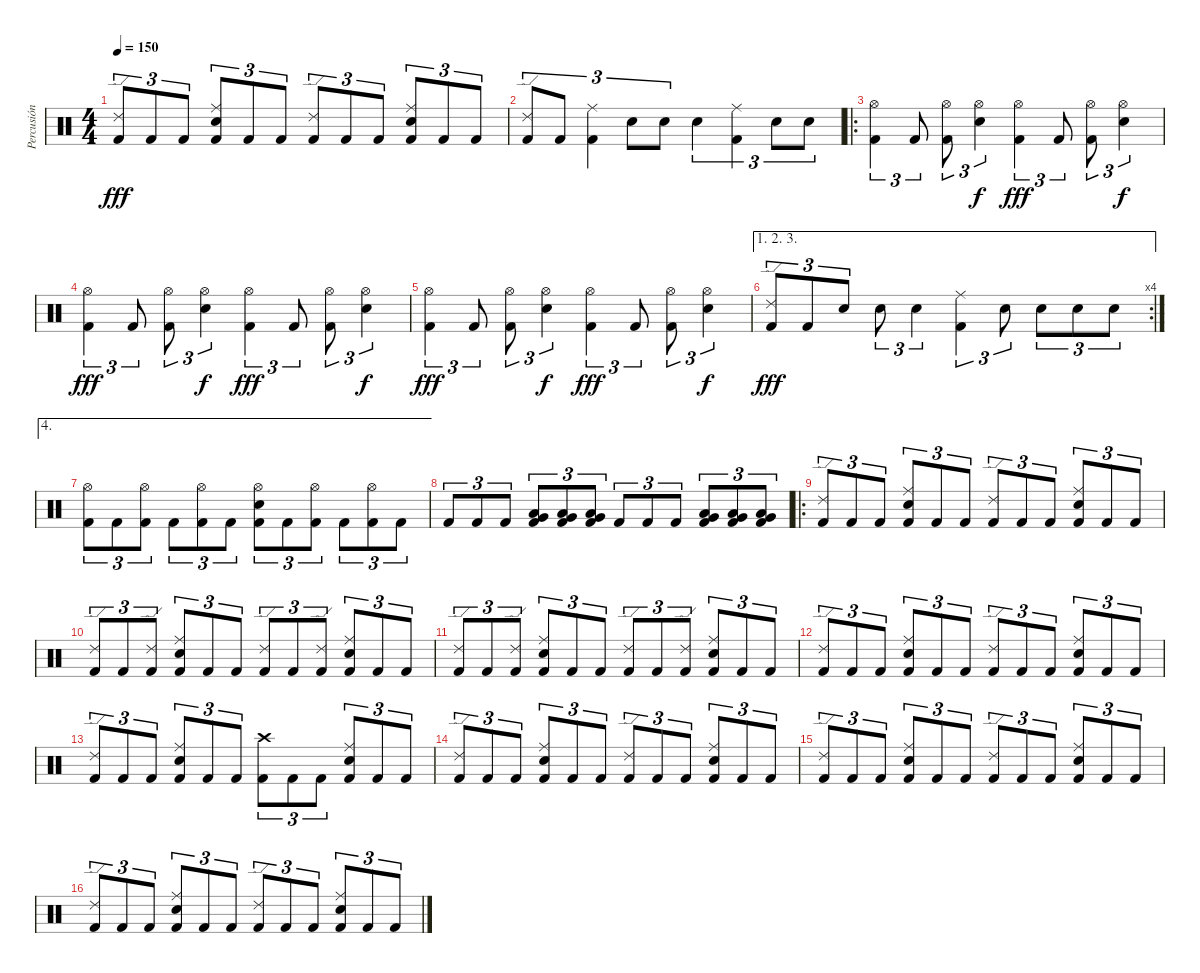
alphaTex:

\track ("Percusión" "Percusión") {instrument percussion}
\staff {score}
\articulation defaults
\ts (4 4)
\tempo 150
\clef neutral
\ks c
("Ride (edge) 2" "Kick (hit) 2").8{tu (3 2) dy fff} "Kick (hit) 2".8{tu (3 2)} "Kick (hit) 2".8{tu (3 2)} ("Ride (middle)" "Snare (hit) 2" "Kick (hit) 2").8{tu (3 2)} "Kick (hit) 2".8{tu (3 2)} "Kick (hit) 2".8{tu (3 2)} ("Ride (edge) 2" "Kick (hit) 2").8{tu (3 2)} "Kick (hit) 2".8{tu (3 2)} "Kick (hit) 2".8{tu (3 2)} ("Ride (middle)" "Snare (hit) 2" "Kick (hit) 2").8{tu (3 2)} "Kick (hit) 2".8{tu (3 2)} "Kick (hit) 2".8{tu (3 2)} |
("Ride (edge) 2" "Kick (hit) 2").8{tu (3 2)} "Kick (hit) 2".8{tu (3 2)} ("Ride (middle)" "Kick (hit) 2").4{tu (3 2)} "Electric Snare (hit)".8{tu (3 2)} "Electric Snare (hit)".8{tu (3 2)} "Electric Snare (hit)".4{tu (3 2)} ("Ride (middle)" "Kick (hit) 2").4{tu (3 2)} "Electric Snare (hit)".8{tu (3 2)} "Electric Snare (hit)".8{tu (3 2)} |
\ro
("Hi-Hat (open)" "Kick (hit) 2").4{tu (3 2)} "Kick (hit) 2".8{tu (3 2)} ("Hi-Hat (open)" "Kick (hit) 2").8{tu (3 2)} ("Hi-Hat (open)" "Snare (hit) 2").4{tu (3 2) dy f} ("Hi-Hat (open)" "Kick (hit) 2").4{tu (3 2) dy fff} "Kick (hit) 2".8{tu (3 2)} ("Hi-Hat (open)" "Kick (hit) 2").8{tu (3 2)} ("Hi-Hat (open)" "Snare (hit) 2").4{tu (3 2) dy f} |
("Hi-Hat (open)" "Kick (hit) 2").4{tu (3 2) dy fff} "Kick (hit) 2".8{tu (3 2)} ("Hi-Hat (open)" "Kick (hit) 2").8{tu (3 2)} ("Hi-Hat (open)" "Snare (hit) 2").4{tu (3 2) dy f} ("Hi-Hat (open)" "Kick (hit) 2").4{tu (3 2) dy fff} "Kick (hit) 2".8{tu (3 2)} ("Hi-Hat (open)" "Kick (hit) 2").8{tu (3 2)} ("Hi-Hat (open)" "Snare (hit) 2").4{tu (3 2) dy f} |
("Hi-Hat (open)" "Kick (hit) 2").4{tu (3 2) dy fff} "Kick (hit) 2".8{tu (3 2)} ("Hi-Hat (open)" "Kick (hit) 2").8{tu (3 2)} ("Hi-Hat (open)" "Snare (hit) 2").4{tu (3 2) dy f} ("Hi-Hat (open)" "Kick (hit) 2").4{tu (3 2) dy fff} "Kick (hit) 2".8{tu (3 2)} ("Hi-Hat (open)" "Kick (hit) 2").8{tu (3 2)} ("Hi-Hat (open)" "Snare (hit) 2").4{tu (3 2) dy f} |
\ae (1 2 3)
\rc 4
("Ride (edge) 2" "Kick (hit) 2").8{tu (3 2) dy fff} "Kick (hit) 2".8{tu (3 2)} "Snare (hit) 2".8{tu (3 2)} "Snare (hit) 2".8{tu (3 2)} "Snare (hit) 2".4{tu (3 2)} ("Ride (middle)" "Kick (hit) 2").4{tu (3 2)} "Snare (hit) 2".8{tu (3 2)} "Snare (hit) 2".8{tu (3 2)} "Snare (hit) 2".8{tu (3 2)} "Snare (hit) 2".8{tu (3 2)} |
\ae 4
("Hi-Hat (open)" "Kick (hit) 2").8{tu (3 2)} "Kick (hit) 2".8{tu (3 2)} ("Hi-Hat (open)" "Kick (hit) 2").8{tu (3 2)} "Kick (hit) 2".8{tu (3 2)} ("Hi-Hat (open)" "Kick (hit) 2").8{tu (3 2)} "Kick (hit) 2".8{tu (3 2)} ("Hi-Hat (open)" "Snare (hit) 2" "Kick (hit) 2").8{tu (3 2)} "Kick (hit) 2".8{tu (3 2)} ("Hi-Hat (open)" "Kick (hit) 2").8{tu (3 2)} "Kick (hit) 2".8{tu (3 2)} ("Hi-Hat (open)" "Kick (hit) 2").8{tu (3 2)} "Kick (hit) 2".8{tu (3 2)} |
"Kick (hit) 2".8{tu (3 2)} "Kick (hit) 2".8{tu (3 2)} "Kick (hit) 2".8{tu (3 2)} ("Very Low Tom (hit)" "Low Tom (hit)" "Kick (hit) 2").8{tu (3 2)} ("Very Low Tom (hit)" "Low Tom (hit)" "Kick (hit) 2").8{tu (3 2)} ("Very Low Tom (hit)" "Low Tom (hit)" "Kick (hit) 2").8{tu (3 2)} "Kick (hit) 2".8{tu (3 2)} "Kick (hit) 2".8{tu (3 2)} "Kick (hit) 2".8{tu (3 2)} ("Very Low Tom (hit)" "Low Tom (hit)" "Kick (hit) 2").8{tu (3 2)} ("Very Low Tom (hit)" "Low Tom (hit)" "Kick (hit) 2").8{tu (3 2)} ("Very Low Tom (hit)" "Low Tom (hit)" "Kick (hit) 2").8{tu (3 2)} |
\ro
("Ride (edge) 2" "Kick (hit) 2").8{tu (3 2)} "Kick (hit) 2".8{tu (3 2)} "Kick (hit) 2".8{tu (3 2)} ("Ride (middle)" "Snare (hit) 2" "Kick (hit) 2").8{tu (3 2)} "Kick (hit) 2".8{tu (3 2)} "Kick (hit) 2".8{tu (3 2)} ("Ride (edge) 2" "Kick (hit) 2").8{tu (3 2)} "Kick (hit) 2".8{tu (3 2)} "Kick (hit) 2".8{tu (3 2)} ("Ride (middle)" "Snare (hit) 2" "Kick (hit) 2").8{tu (3 2)} "Kick (hit) 2".8{tu (3 2)} "Kick (hit) 2".8{tu (3 2)} |
("Ride (edge) 2" "Kick (hit) 2").8{tu (3 2)} "Kick (hit) 2".8{tu (3 2)} ("Ride (edge) 2" "Kick (hit) 2").8{tu (3 2)} ("Ride (middle)" "Snare (hit) 2" "Kick (hit) 2").8{tu (3 2)} "Kick (hit) 2".8{tu (3 2)} "Kick (hit) 2".8{tu (3 2)} ("Ride (edge) 2" "Kick (hit) 2").8{tu (3 2)} "Kick (hit) 2".8{tu (3 2)} ("Ride (edge) 2" "Kick (hit) 2").8{tu (3 2)} ("Ride (middle)" "Snare (hit) 2" "Kick (hit) 2").8{tu (3 2)} "Kick (hit) 2".8{tu (3 2)} "Kick (hit) 2".8{tu (3 2)} |
("Ride (edge) 2" "Kick (hit) 2").8{tu (3 2)} "Kick (hit) 2".8{tu (3 2)} ("Ride (edge) 2" "Kick (hit) 2").8{tu (3 2)} ("Ride (middle)" "Snare (hit) 2" "Kick (hit) 2").8{tu (3 2)} "Kick (hit) 2".8{tu (3 2)} "Kick (hit) 2".8{tu (3 2)} ("Ride (edge) 2" "Kick (hit) 2").8{tu (3 2)} "Kick (hit) 2".8{tu (3 2)} ("Ride (edge) 2" "Kick (hit) 2").8{tu (3 2)} ("Ride (middle)" "Snare (hit) 2" "Kick (hit) 2").8{tu (3 2)} "Kick (hit) 2".8{tu (3 2)} "Kick (hit) 2".8{tu (3 2)} |
("Ride (edge) 2" "Kick (hit) 2").8{tu (3 2)} "Kick (hit) 2".8{tu (3 2)} "Kick (hit) 2".8{tu (3 2)} ("Ride (middle)" "Snare (hit) 2" "Kick (hit) 2").8{tu (3 2)} "Kick (hit) 2".8{tu (3 2)} "Kick (hit) 2".8{tu (3 2)} ("Ride (edge) 2" "Kick (hit) 2").8{tu (3 2)} "Kick (hit) 2".8{tu (3 2)} "Kick (hit) 2".8{tu (3 2)} ("Ride (middle)" "Snare (hit) 2" "Kick (hit) 2").8{tu (3 2)} "Kick (hit) 2".8{tu (3 2)} "Kick (hit) 2".8{tu (3 2)} |
("Ride (edge) 2" "Kick (hit) 2").8{tu (3 2)} "Kick (hit) 2".8{tu (3 2)} "Kick (hit) 2".8{tu (3 2)} ("Ride (middle)" "Snare (hit) 2" "Kick (hit) 2").8{tu (3 2)} "Kick (hit) 2".8{tu (3 2)} "Kick (hit) 2".8{tu (3 2)} ("Crash high (hit)" "Kick (hit) 2").8{tu (3 2)} "Kick (hit) 2".8{tu (3 2)} "Kick (hit) 2".8{tu (3 2)} ("Ride (middle)" "Snare (hit) 2" "Kick (hit) 2").8{tu (3 2)} "Kick (hit) 2".8{tu (3 2)} "Kick (hit) 2".8{tu (3 2)} |
("Ride (edge) 2" "Kick (hit) 2").8{tu (3 2)} "Kick (hit) 2".8{tu (3 2)} "Kick (hit) 2".8{tu (3 2)} ("Ride (middle)" "Snare (hit) 2" "Kick (hit) 2").8{tu (3 2)} "Kick (hit) 2".8{tu (3 2)} "Kick (hit) 2".8{tu (3 2)} ("Ride (edge) 2" "Kick (hit) 2").8{tu (3 2)} "Kick (hit) 2".8{tu (3 2)} "Kick (hit) 2".8{tu (3 2)} ("Ride (middle)" "Snare (hit) 2" "Kick (hit) 2").8{tu (3 2)} "Kick (hit) 2".8{tu (3 2)} "Kick (hit) 2".8{tu (3 2)} |
("Ride (edge) 2" "Kick (hit) 2").8{tu (3 2)} "Kick (hit) 2".8{tu (3 2)} "Kick (hit) 2".8{tu (3 2)} ("Ride (middle)" "Snare (hit) 2" "Kick (hit) 2").8{tu (3 2)} "Kick (hit) 2".8{tu (3 2)} "Kick (hit) 2".8{tu (3 2)} ("Ride (edge) 2" "Kick (hit) 2").8{tu (3 2)} "Kick (hit) 2".8{tu (3 2)} "Kick (hit) 2".8{tu (3 2)} ("Ride (middle)" "Snare (hit) 2" "Kick (hit) 2").8{tu (3 2)} "Kick (hit) 2".8{tu (3 2)} "Kick (hit) 2".8{tu (3 2)} |
("Ride (edge) 2" "Kick (hit) 2").8{tu (3 2)} "Kick (hit) 2".8{tu (3 2)} "Kick (hit) 2".8{tu (3 2)} ("Ride (middle)" "Snare (hit) 2" "Kick (hit) 2").8{tu (3 2)} "Kick (hit) 2".8{tu (3 2)} "Kick (hit) 2".8{tu (3 2)} ("Ride (edge) 2" "Kick (hit) 2").8{tu (3 2)} "Kick (hit) 2".8{tu (3 2)} "Kick (hit) 2".8{tu (3 2)} ("Ride (middle)" "Snare (hit) 2" "Kick (hit) 2").8{tu (3 2)} "Kick (hit) 2".8{tu (3 2)} "Kick (hit) 2".8{tu (3 2)}
